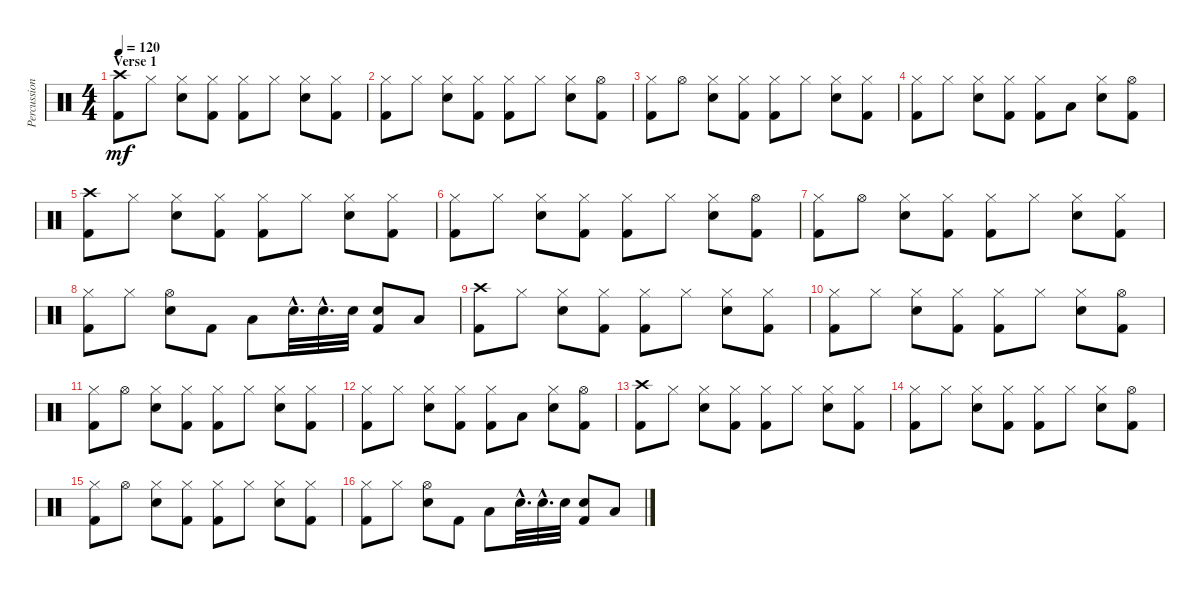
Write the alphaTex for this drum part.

\track ("Percussion" "Percussion") {instrument percussion}
\staff {score}
\articulation defaults
\ts (4 4)
\section ("" "Verse 1")
\tempo 120
\clef neutral
\ks c
("Kick (hit) 2" "Crash high (hit)").8{dy mf} "Hi-Hat (closed)".8 ("Hi-Hat (closed)" "Snare (hit) 2").8 ("Hi-Hat (closed)" "Kick (hit) 2").8 ("Kick (hit) 2" "Hi-Hat (closed)").8 "Hi-Hat (closed)".8 ("Snare (hit) 2" "Hi-Hat (closed)").8 ("Kick (hit) 2" "Hi-Hat (closed)").8 |
("Kick (hit) 2" "Hi-Hat (closed)").8 "Hi-Hat (closed)".8 ("Hi-Hat (closed)" "Snare (hit) 2").8 ("Hi-Hat (closed)" "Kick (hit) 2").8 ("Kick (hit) 2" "Hi-Hat (closed)").8 "Hi-Hat (closed)".8 ("Snare (hit) 2" "Hi-Hat (closed)").8 ("Hi-Hat (open)" "Kick (hit) 2").8 |
("Kick (hit) 2" "Hi-Hat (closed)").8 "Hi-Hat (open)".8 ("Hi-Hat (closed)" "Snare (hit) 2").8 ("Hi-Hat (closed)" "Kick (hit) 2").8 ("Kick (hit) 2" "Hi-Hat (closed)").8 "Hi-Hat (closed)".8 ("Snare (hit) 2" "Hi-Hat (closed)").8 ("Kick (hit) 2" "Hi-Hat (closed)").8 |
("Kick (hit) 2" "Hi-Hat (closed)").8 "Hi-Hat (closed)".8 ("Hi-Hat (closed)" "Snare (hit) 2").8 ("Hi-Hat (closed)" "Kick (hit) 2").8 ("Kick (hit) 2" "Hi-Hat (closed)").8 "Low Floor Tom (hit)".8 ("Snare (hit) 2" "Hi-Hat (closed)").8 ("Hi-Hat (open)" "Kick (hit) 2").8 |
("Kick (hit) 2" "Crash high (hit)").8 "Hi-Hat (closed)".8 ("Hi-Hat (closed)" "Snare (hit) 2").8 ("Hi-Hat (closed)" "Kick (hit) 2").8 ("Kick (hit) 2" "Hi-Hat (closed)").8 "Hi-Hat (closed)".8 ("Snare (hit) 2" "Hi-Hat (closed)").8 ("Kick (hit) 2" "Hi-Hat (closed)").8 |
("Kick (hit) 2" "Hi-Hat (closed)").8 "Hi-Hat (closed)".8 ("Hi-Hat (closed)" "Snare (hit) 2").8 ("Hi-Hat (closed)" "Kick (hit) 2").8 ("Kick (hit) 2" "Hi-Hat (closed)").8 "Hi-Hat (closed)".8 ("Snare (hit) 2" "Hi-Hat (closed)").8 ("Hi-Hat (open)" "Kick (hit) 2").8 |
("Kick (hit) 2" "Hi-Hat (closed)").8 "Hi-Hat (open)".8 ("Hi-Hat (closed)" "Snare (hit) 2").8 ("Hi-Hat (closed)" "Kick (hit) 2").8 ("Kick (hit) 2" "Hi-Hat (closed)").8 "Hi-Hat (closed)".8 ("Snare (hit) 2" "Hi-Hat (closed)").8 ("Kick (hit) 2" "Hi-Hat (closed)").8 |
("Kick (hit) 2" "Hi-Hat (closed)").8 "Hi-Hat (closed)".8 ("Hi-Hat (open)" "Snare (hit) 2").8 "Kick (hit) 2".8 "Low Tom (hit)".8 "Snare (hit) 2"{hac}.32{d} "Snare (hit) 2"{hac}.32{d} "Snare (hit) 2".32 ("Snare (hit) 2" "Kick (hit) 2").8 "Low Floor Tom (hit)".8 |
("Kick (hit) 2" "Crash high (hit)").8 "Hi-Hat (closed)".8 ("Hi-Hat (closed)" "Snare (hit) 2").8 ("Hi-Hat (closed)" "Kick (hit) 2").8 ("Kick (hit) 2" "Hi-Hat (closed)").8 "Hi-Hat (closed)".8 ("Snare (hit) 2" "Hi-Hat (closed)").8 ("Kick (hit) 2" "Hi-Hat (closed)").8 |
("Kick (hit) 2" "Hi-Hat (closed)").8 "Hi-Hat (closed)".8 ("Hi-Hat (closed)" "Snare (hit) 2").8 ("Hi-Hat (closed)" "Kick (hit) 2").8 ("Kick (hit) 2" "Hi-Hat (closed)").8 "Hi-Hat (closed)".8 ("Snare (hit) 2" "Hi-Hat (closed)").8 ("Hi-Hat (open)" "Kick (hit) 2").8 |
("Kick (hit) 2" "Hi-Hat (closed)").8 "Hi-Hat (open)".8 ("Hi-Hat (closed)" "Snare (hit) 2").8 ("Hi-Hat (closed)" "Kick (hit) 2").8 ("Kick (hit) 2" "Hi-Hat (closed)").8 "Hi-Hat (closed)".8 ("Snare (hit) 2" "Hi-Hat (closed)").8 ("Kick (hit) 2" "Hi-Hat (closed)").8 |
("Kick (hit) 2" "Hi-Hat (closed)").8 "Hi-Hat (closed)".8 ("Hi-Hat (closed)" "Snare (hit) 2").8 ("Hi-Hat (closed)" "Kick (hit) 2").8 ("Kick (hit) 2" "Hi-Hat (closed)").8 "Low Floor Tom (hit)".8 ("Snare (hit) 2" "Hi-Hat (closed)").8 ("Hi-Hat (open)" "Kick (hit) 2").8 |
("Kick (hit) 2" "Crash high (hit)").8 "Hi-Hat (closed)".8 ("Hi-Hat (closed)" "Snare (hit) 2").8 ("Hi-Hat (closed)" "Kick (hit) 2").8 ("Kick (hit) 2" "Hi-Hat (closed)").8 "Hi-Hat (closed)".8 ("Snare (hit) 2" "Hi-Hat (closed)").8 ("Kick (hit) 2" "Hi-Hat (closed)").8 |
("Kick (hit) 2" "Hi-Hat (closed)").8 "Hi-Hat (closed)".8 ("Hi-Hat (closed)" "Snare (hit) 2").8 ("Hi-Hat (closed)" "Kick (hit) 2").8 ("Kick (hit) 2" "Hi-Hat (closed)").8 "Hi-Hat (closed)".8 ("Snare (hit) 2" "Hi-Hat (closed)").8 ("Hi-Hat (open)" "Kick (hit) 2").8 |
("Kick (hit) 2" "Hi-Hat (closed)").8 "Hi-Hat (open)".8 ("Hi-Hat (closed)" "Snare (hit) 2").8 ("Hi-Hat (closed)" "Kick (hit) 2").8 ("Kick (hit) 2" "Hi-Hat (closed)").8 "Hi-Hat (closed)".8 ("Snare (hit) 2" "Hi-Hat (closed)").8 ("Kick (hit) 2" "Hi-Hat (closed)").8 |
("Kick (hit) 2" "Hi-Hat (closed)").8 "Hi-Hat (closed)".8 ("Hi-Hat (open)" "Snare (hit) 2").8 "Kick (hit) 2".8 "Low Tom (hit)".8 "Snare (hit) 2"{hac}.32{d} "Snare (hit) 2"{hac}.32{d} "Snare (hit) 2".32 ("Snare (hit) 2" "Kick (hit) 2").8 "Low Floor Tom (hit)".8
